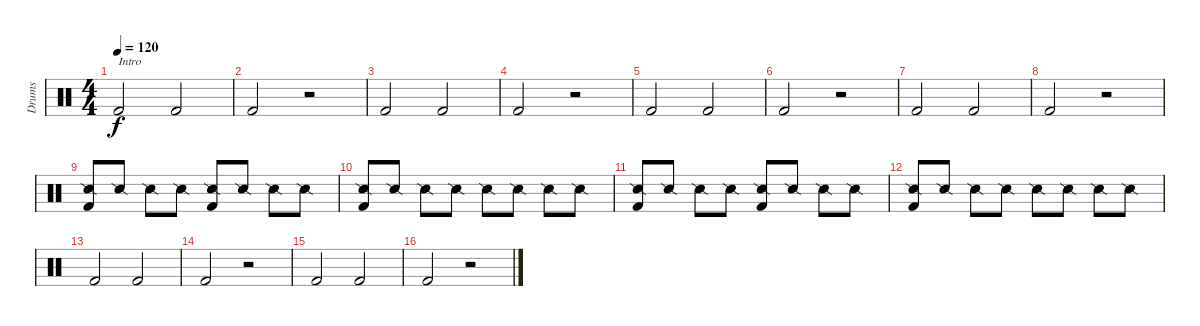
\track ("Drums" "Drums") {instrument percussion}
\staff {score}
\articulation defaults
\ts (4 4)
\tempo 120
\clef neutral
\ks c "Kick (hit) 2".2{txt "Intro" dy f} "Kick (hit) 2".2
|
"Kick (hit) 2".2 r.2 |
"Kick (hit) 2".2 "Kick (hit) 2".2 |
"Kick (hit) 2".2 r.2 |
"Kick (hit) 2".2 "Kick (hit) 2".2 |
"Kick (hit) 2".2 r.2 |
"Kick (hit) 2".2 "Kick (hit) 2".2 |
"Kick (hit) 2".2 r.2 |
("Snare (side stick) 2" "Kick (hit) 2").8 "Snare (side stick) 2".8 "Snare (side stick) 2".8 "Snare (side stick) 2".8 ("Snare (side stick) 2" "Kick (hit) 2").8 "Snare (side stick) 2".8 "Snare (side stick) 2".8 "Snare (side stick) 2".8 |
("Snare (side stick) 2" "Kick (hit) 2").8 "Snare (side stick) 2".8 "Snare (side stick) 2".8 "Snare (side stick) 2".8 "Snare (side stick) 2".8 "Snare (side stick) 2".8 "Snare (side stick) 2".8 "Snare (side stick) 2".8 |
("Snare (side stick) 2" "Kick (hit) 2").8 "Snare (side stick) 2".8 "Snare (side stick) 2".8 "Snare (side stick) 2".8 ("Snare (side stick) 2" "Kick (hit) 2").8 "Snare (side stick) 2".8 "Snare (side stick) 2".8 "Snare (side stick) 2".8 |
("Snare (side stick) 2" "Kick (hit) 2").8 "Snare (side stick) 2".8 "Snare (side stick) 2".8 "Snare (side stick) 2".8 "Snare (side stick) 2".8 "Snare (side stick) 2".8 "Snare (side stick) 2".8 "Snare (side stick) 2".8 |
"Kick (hit) 2".2 "Kick (hit) 2".2 |
"Kick (hit) 2".2 r.2 |
"Kick (hit) 2".2 "Kick (hit) 2".2 |
"Kick (hit) 2".2 r.2
